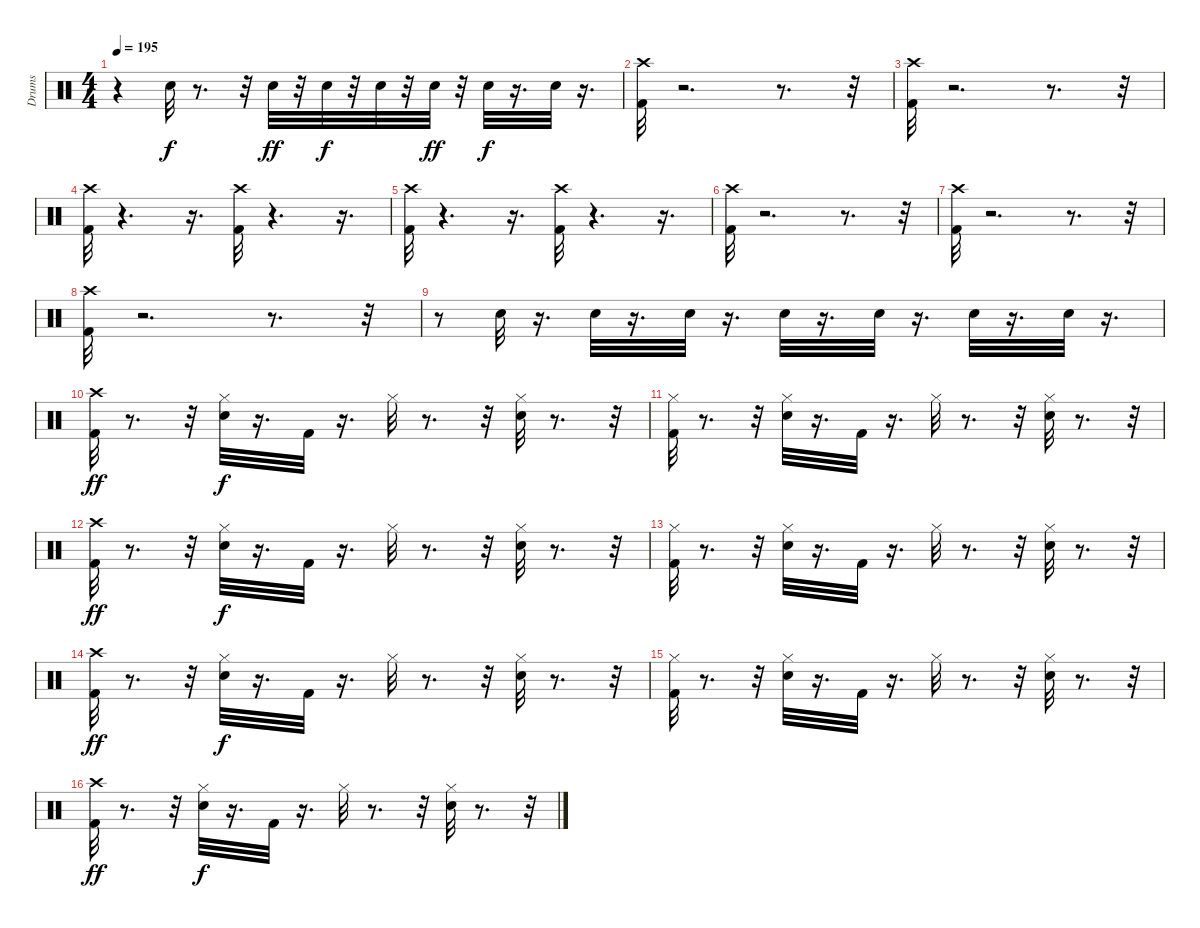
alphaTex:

\track ("Drums" "Drums") {instrument percussion}
\staff {score}
\articulation defaults
\ts (4 4)
\tempo 195
\clef neutral
\ks c
r.4{dy f} "Snare (hit) 2".32 r.8{d} r.32 "Snare (hit) 2".32{dy ff} r.32 "Snare (hit) 2".32{dy f} r.32 "Snare (hit) 2".32 r.32 "Snare (hit) 2".32{dy ff} r.32 "Snare (hit) 2".32{dy f} r.16{d} "Snare (hit) 2".32 r.16{d} |
("Crash high (hit)" "Kick (hit) 2").32 r.2{d} r.8{d} r.32 |
("Crash high (hit)" "Kick (hit) 2").32 r.2{d} r.8{d} r.32 |
("Crash high (hit)" "Kick (hit) 2").32 r.4{d} r.16{d} ("Crash high (hit)" "Kick (hit) 2").32 r.4{d} r.16{d} |
("Crash high (hit)" "Kick (hit) 2").32 r.4{d} r.16{d} ("Crash high (hit)" "Kick (hit) 2").32 r.4{d} r.16{d} |
("Crash high (hit)" "Kick (hit) 2").32 r.2{d} r.8{d} r.32 |
("Crash high (hit)" "Kick (hit) 2").32 r.2{d} r.8{d} r.32 |
("Crash high (hit)" "Kick (hit) 2").32 r.2{d} r.8{d} r.32 |
r.8 "Snare (hit) 2".32 r.16{d} "Snare (hit) 2".32 r.16{d} "Snare (hit) 2".32 r.16{d} "Snare (hit) 2".32 r.16{d} "Snare (hit) 2".32 r.16{d} "Snare (hit) 2".32 r.16{d} "Snare (hit) 2".32 r.16{d} |
("Crash high (hit)" "Kick (hit) 2").32{dy ff} r.8{d} r.32 ("Hi-Hat (closed)" "Snare (hit) 2").32{dy f} r.16{d} "Kick (hit) 2".32 r.16{d} "Hi-Hat (closed)".32 r.8{d} r.32 ("Hi-Hat (closed)" "Snare (hit) 2").32 r.8{d} r.32 |
("Kick (hit) 2" "Hi-Hat (closed)").32 r.8{d} r.32 ("Snare (hit) 2" "Hi-Hat (closed)").32 r.16{d} "Kick (hit) 2".32 r.16{d} "Hi-Hat (closed)".32 r.8{d} r.32 ("Snare (hit) 2" "Hi-Hat (closed)").32 r.8{d} r.32 |
("Crash high (hit)" "Kick (hit) 2").32{dy ff} r.8{d} r.32 ("Hi-Hat (closed)" "Snare (hit) 2").32{dy f} r.16{d} "Kick (hit) 2".32 r.16{d} "Hi-Hat (closed)".32 r.8{d} r.32 ("Hi-Hat (closed)" "Snare (hit) 2").32 r.8{d} r.32 |
("Kick (hit) 2" "Hi-Hat (closed)").32 r.8{d} r.32 ("Snare (hit) 2" "Hi-Hat (closed)").32 r.16{d} "Kick (hit) 2".32 r.16{d} "Hi-Hat (closed)".32 r.8{d} r.32 ("Snare (hit) 2" "Hi-Hat (closed)").32 r.8{d} r.32 |
("Crash high (hit)" "Kick (hit) 2").32{dy ff} r.8{d} r.32 ("Hi-Hat (closed)" "Snare (hit) 2").32{dy f} r.16{d} "Kick (hit) 2".32 r.16{d} "Hi-Hat (closed)".32 r.8{d} r.32 ("Hi-Hat (closed)" "Snare (hit) 2").32 r.8{d} r.32 |
("Kick (hit) 2" "Hi-Hat (closed)").32 r.8{d} r.32 ("Snare (hit) 2" "Hi-Hat (closed)").32 r.16{d} "Kick (hit) 2".32 r.16{d} "Hi-Hat (closed)".32 r.8{d} r.32 ("Snare (hit) 2" "Hi-Hat (closed)").32 r.8{d} r.32 |
("Crash high (hit)" "Kick (hit) 2").32{dy ff} r.8{d} r.32 ("Hi-Hat (closed)" "Snare (hit) 2").32{dy f} r.16{d} "Kick (hit) 2".32 r.16{d} "Hi-Hat (closed)".32 r.8{d} r.32 ("Hi-Hat (closed)" "Snare (hit) 2").32 r.8{d} r.32
